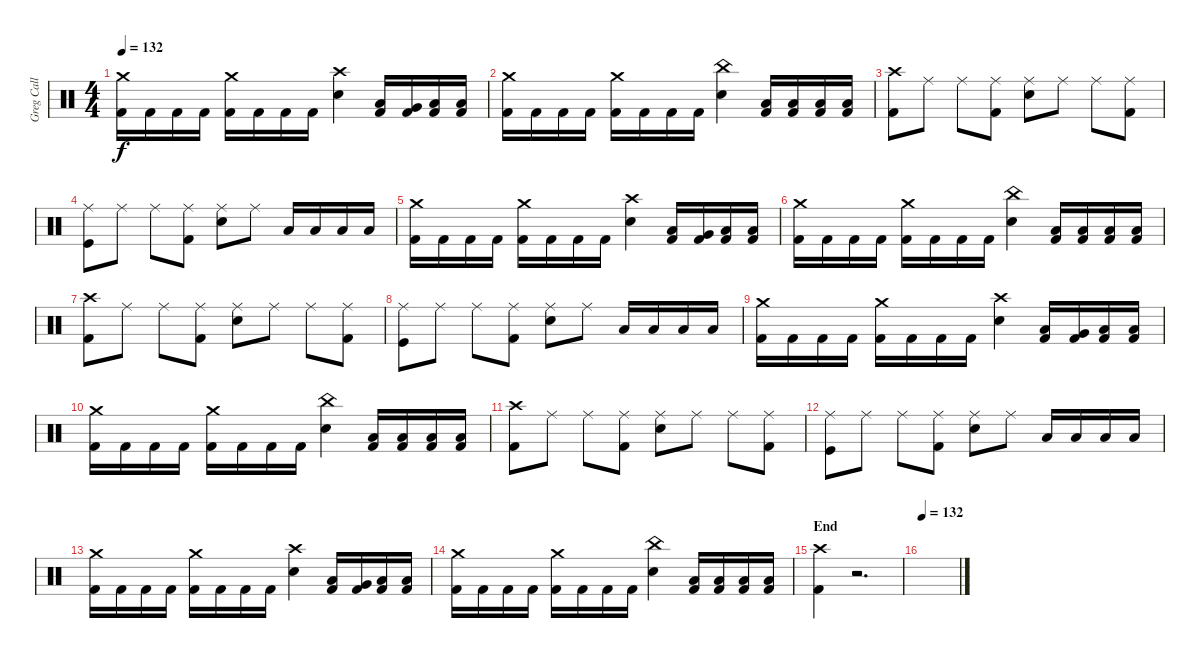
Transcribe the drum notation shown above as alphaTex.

\track ("Greg Call (Drums)" "Greg Call ") {instrument percussion}
\staff {score}
\articulation defaults
\ts (4 4)
\tempo 132
\clef neutral
\ks c
("Crash medium (hit)" "Kick (hit) 2").16{dy f} "Kick (hit) 2".16 "Kick (hit) 2".16 "Kick (hit) 2".16 ("Crash medium (hit)" "Kick (hit) 2").16 "Kick (hit) 2".16 "Kick (hit) 2".16 "Kick (hit) 2".16 ("Crash high (hit)" "Snare (hit) 2").4 ("Low Tom (hit)" "Kick (hit) 2").16 ("Very Low Tom (hit)" "Kick (hit) 2").16 ("Low Floor Tom (hit)" "Kick (hit) 2").16 ("Low Floor Tom (hit)" "Kick (hit) 2").16 |
("Crash medium (hit)" "Kick (hit) 2").16 "Kick (hit) 2".16 "Kick (hit) 2".16 "Kick (hit) 2".16 ("Crash medium (hit)" "Kick (hit) 2").16 "Kick (hit) 2".16 "Kick (hit) 2".16 "Kick (hit) 2".16 ("China (hit)" "Snare (hit) 2").4 ("Low Floor Tom (hit)" "Kick (hit) 2").16 ("Low Floor Tom (hit)" "Kick (hit) 2").16 ("Low Floor Tom (hit)" "Kick (hit) 2").16 ("Low Floor Tom (hit)" "Kick (hit) 2").16 |
("Crash high (hit)" "Kick (hit) 2").8 "Ride (middle)".8 "Ride (middle)".8 ("Ride (middle)" "Kick (hit) 2").8 ("Ride (middle)" "Snare (hit) 2").8 "Ride (middle)".8 "Ride (middle)".8 ("Ride (middle)" "Kick (hit) 2").8 |
("Ride (middle)" "Kick (hit)").8 "Ride (middle)".8 "Ride (middle)".8 ("Ride (middle)" "Kick (hit) 2").8 ("Ride (middle)" "Snare (hit) 2").8 "Ride (middle)".8 "Low Tom (hit)".16 "Low Tom (hit)".16 "Low Tom (hit)".16 "Low Tom (hit)".16 |
("Crash medium (hit)" "Kick (hit) 2").16 "Kick (hit) 2".16 "Kick (hit) 2".16 "Kick (hit) 2".16 ("Crash medium (hit)" "Kick (hit) 2").16 "Kick (hit) 2".16 "Kick (hit) 2".16 "Kick (hit) 2".16 ("Crash high (hit)" "Snare (hit) 2").4 ("Low Tom (hit)" "Kick (hit) 2").16 ("Very Low Tom (hit)" "Kick (hit) 2").16 ("Low Floor Tom (hit)" "Kick (hit) 2").16 ("Low Floor Tom (hit)" "Kick (hit) 2").16 |
("Crash medium (hit)" "Kick (hit) 2").16 "Kick (hit) 2".16 "Kick (hit) 2".16 "Kick (hit) 2".16 ("Crash medium (hit)" "Kick (hit) 2").16 "Kick (hit) 2".16 "Kick (hit) 2".16 "Kick (hit) 2".16 ("China (hit)" "Snare (hit) 2").4 ("Low Floor Tom (hit)" "Kick (hit) 2").16 ("Low Floor Tom (hit)" "Kick (hit) 2").16 ("Low Floor Tom (hit)" "Kick (hit) 2").16 ("Low Floor Tom (hit)" "Kick (hit) 2").16 |
("Crash high (hit)" "Kick (hit) 2").8 "Ride (middle)".8 "Ride (middle)".8 ("Ride (middle)" "Kick (hit) 2").8 ("Ride (middle)" "Snare (hit) 2").8 "Ride (middle)".8 "Ride (middle)".8 ("Ride (middle)" "Kick (hit) 2").8 |
("Ride (middle)" "Kick (hit)").8 "Ride (middle)".8 "Ride (middle)".8 ("Ride (middle)" "Kick (hit) 2").8 ("Ride (middle)" "Snare (hit) 2").8 "Ride (middle)".8 "Low Tom (hit)".16 "Low Tom (hit)".16 "Low Tom (hit)".16 "Low Tom (hit)".16 |
("Crash medium (hit)" "Kick (hit) 2").16 "Kick (hit) 2".16 "Kick (hit) 2".16 "Kick (hit) 2".16 ("Crash medium (hit)" "Kick (hit) 2").16 "Kick (hit) 2".16 "Kick (hit) 2".16 "Kick (hit) 2".16 ("Crash high (hit)" "Snare (hit) 2").4 ("Low Tom (hit)" "Kick (hit) 2").16 ("Very Low Tom (hit)" "Kick (hit) 2").16 ("Low Floor Tom (hit)" "Kick (hit) 2").16 ("Low Floor Tom (hit)" "Kick (hit) 2").16 |
("Crash medium (hit)" "Kick (hit) 2").16 "Kick (hit) 2".16 "Kick (hit) 2".16 "Kick (hit) 2".16 ("Crash medium (hit)" "Kick (hit) 2").16 "Kick (hit) 2".16 "Kick (hit) 2".16 "Kick (hit) 2".16 ("China (hit)" "Snare (hit) 2").4 ("Low Floor Tom (hit)" "Kick (hit) 2").16 ("Low Floor Tom (hit)" "Kick (hit) 2").16 ("Low Floor Tom (hit)" "Kick (hit) 2").16 ("Low Floor Tom (hit)" "Kick (hit) 2").16 |
("Crash high (hit)" "Kick (hit) 2").8 "Ride (middle)".8 "Ride (middle)".8 ("Ride (middle)" "Kick (hit) 2").8 ("Ride (middle)" "Snare (hit) 2").8 "Ride (middle)".8 "Ride (middle)".8 ("Ride (middle)" "Kick (hit) 2").8 |
("Ride (middle)" "Kick (hit)").8 "Ride (middle)".8 "Ride (middle)".8 ("Ride (middle)" "Kick (hit) 2").8 ("Ride (middle)" "Snare (hit) 2").8 "Ride (middle)".8 "Low Tom (hit)".16 "Low Tom (hit)".16 "Low Tom (hit)".16 "Low Tom (hit)".16 |
("Crash medium (hit)" "Kick (hit) 2").16 "Kick (hit) 2".16 "Kick (hit) 2".16 "Kick (hit) 2".16 ("Crash medium (hit)" "Kick (hit) 2").16 "Kick (hit) 2".16 "Kick (hit) 2".16 "Kick (hit) 2".16 ("Crash high (hit)" "Snare (hit) 2").4 ("Low Tom (hit)" "Kick (hit) 2").16 ("Very Low Tom (hit)" "Kick (hit) 2").16 ("Low Floor Tom (hit)" "Kick (hit) 2").16 ("Low Floor Tom (hit)" "Kick (hit) 2").16 |
("Crash medium (hit)" "Kick (hit) 2").16 "Kick (hit) 2".16 "Kick (hit) 2".16 "Kick (hit) 2".16 ("Crash medium (hit)" "Kick (hit) 2").16 "Kick (hit) 2".16 "Kick (hit) 2".16 "Kick (hit) 2".16 ("China (hit)" "Snare (hit) 2").4 ("Low Floor Tom (hit)" "Kick (hit) 2").16 ("Low Floor Tom (hit)" "Kick (hit) 2").16 ("Low Floor Tom (hit)" "Kick (hit) 2").16 ("Low Floor Tom (hit)" "Kick (hit) 2").16 |
\section ("" "End")
("Crash high (hit)" "Kick (hit) 2").4 r.2{d volume 0} |
\tempo 132
